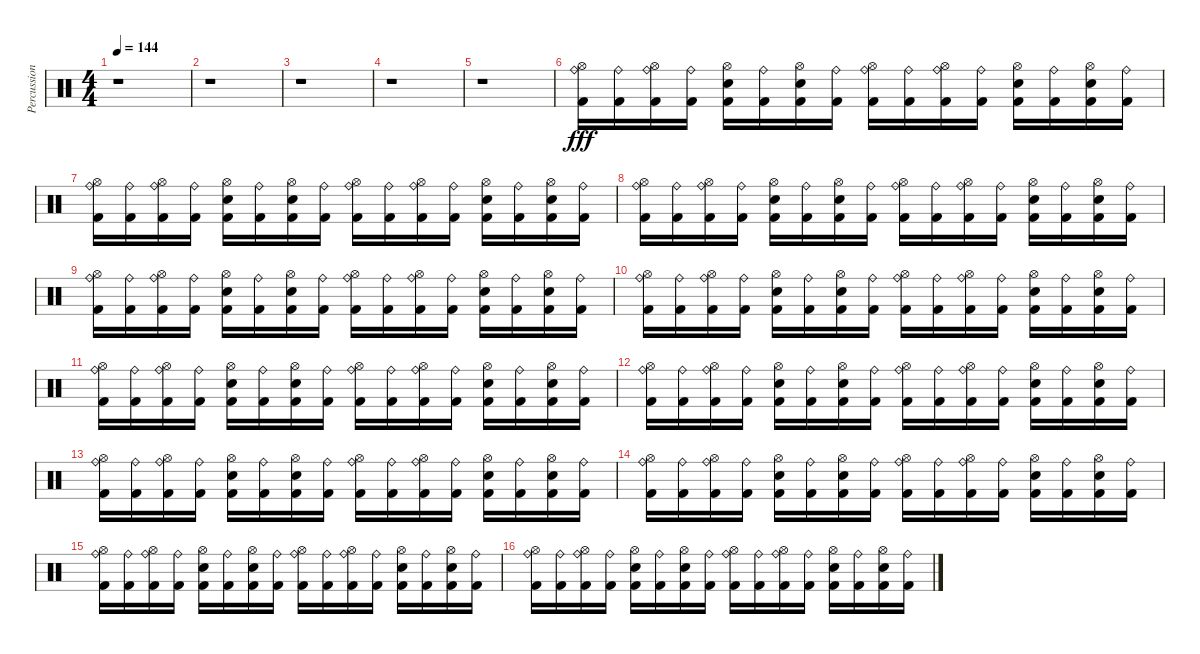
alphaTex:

\track ("Percussion -  Bard Faust" "Percussion") {instrument percussion}
\staff {score}
\articulation defaults
\ts (4 4)
\tempo 144
\clef neutral
\ks c
r.1{dy fff} |
r.1 |
r.1 |
r.1 |
r.1 |
("Hi-Hat (open)" "Ride (bell)" "Kick (hit) 2").16 ("Ride (bell)" "Kick (hit) 2").16 ("Hi-Hat (open)" "Ride (bell)" "Kick (hit) 2").16 ("Ride (bell)" "Kick (hit) 2").16 ("Hi-Hat (open)" "Electric Snare (hit)" "Kick (hit) 2").16 ("Ride (bell)" "Kick (hit) 2").16 ("Hi-Hat (open)" "Electric Snare (hit)" "Kick (hit) 2").16 ("Ride (bell)" "Kick (hit) 2").16 ("Hi-Hat (open)" "Ride (bell)" "Kick (hit) 2").16 ("Ride (bell)" "Kick (hit) 2").16 ("Hi-Hat (open)" "Ride (bell)" "Kick (hit) 2").16 ("Ride (bell)" "Kick (hit) 2").16 ("Hi-Hat (open)" "Electric Snare (hit)" "Kick (hit) 2").16 ("Ride (bell)" "Kick (hit) 2").16 ("Hi-Hat (open)" "Electric Snare (hit)" "Kick (hit) 2").16 ("Ride (bell)" "Kick (hit) 2").16 |
("Hi-Hat (open)" "Ride (bell)" "Kick (hit) 2").16 ("Ride (bell)" "Kick (hit) 2").16 ("Hi-Hat (open)" "Ride (bell)" "Kick (hit) 2").16 ("Ride (bell)" "Kick (hit) 2").16 ("Hi-Hat (open)" "Electric Snare (hit)" "Kick (hit) 2").16 ("Ride (bell)" "Kick (hit) 2").16 ("Hi-Hat (open)" "Electric Snare (hit)" "Kick (hit) 2").16 ("Ride (bell)" "Kick (hit) 2").16 ("Hi-Hat (open)" "Ride (bell)" "Kick (hit) 2").16 ("Ride (bell)" "Kick (hit) 2").16 ("Hi-Hat (open)" "Ride (bell)" "Kick (hit) 2").16 ("Ride (bell)" "Kick (hit) 2").16 ("Hi-Hat (open)" "Electric Snare (hit)" "Kick (hit) 2").16 ("Ride (bell)" "Kick (hit) 2").16 ("Hi-Hat (open)" "Electric Snare (hit)" "Kick (hit) 2").16 ("Ride (bell)" "Kick (hit) 2").16 |
("Hi-Hat (open)" "Ride (bell)" "Kick (hit) 2").16 ("Ride (bell)" "Kick (hit) 2").16 ("Hi-Hat (open)" "Ride (bell)" "Kick (hit) 2").16 ("Ride (bell)" "Kick (hit) 2").16 ("Hi-Hat (open)" "Electric Snare (hit)" "Kick (hit) 2").16 ("Ride (bell)" "Kick (hit) 2").16 ("Hi-Hat (open)" "Electric Snare (hit)" "Kick (hit) 2").16 ("Ride (bell)" "Kick (hit) 2").16 ("Hi-Hat (open)" "Ride (bell)" "Kick (hit) 2").16 ("Ride (bell)" "Kick (hit) 2").16 ("Hi-Hat (open)" "Ride (bell)" "Kick (hit) 2").16 ("Ride (bell)" "Kick (hit) 2").16 ("Hi-Hat (open)" "Electric Snare (hit)" "Kick (hit) 2").16 ("Ride (bell)" "Kick (hit) 2").16 ("Hi-Hat (open)" "Electric Snare (hit)" "Kick (hit) 2").16 ("Ride (bell)" "Kick (hit) 2").16 |
("Hi-Hat (open)" "Ride (bell)" "Kick (hit) 2").16 ("Ride (bell)" "Kick (hit) 2").16 ("Hi-Hat (open)" "Ride (bell)" "Kick (hit) 2").16 ("Ride (bell)" "Kick (hit) 2").16 ("Hi-Hat (open)" "Electric Snare (hit)" "Kick (hit) 2").16 ("Ride (bell)" "Kick (hit) 2").16 ("Hi-Hat (open)" "Electric Snare (hit)" "Kick (hit) 2").16 ("Ride (bell)" "Kick (hit) 2").16 ("Hi-Hat (open)" "Ride (bell)" "Kick (hit) 2").16 ("Ride (bell)" "Kick (hit) 2").16 ("Hi-Hat (open)" "Ride (bell)" "Kick (hit) 2").16 ("Ride (bell)" "Kick (hit) 2").16 ("Hi-Hat (open)" "Electric Snare (hit)" "Kick (hit) 2").16 ("Ride (bell)" "Kick (hit) 2").16 ("Hi-Hat (open)" "Electric Snare (hit)" "Kick (hit) 2").16 ("Ride (bell)" "Kick (hit) 2").16 |
("Hi-Hat (open)" "Ride (bell)" "Kick (hit) 2").16 ("Ride (bell)" "Kick (hit) 2").16 ("Hi-Hat (open)" "Ride (bell)" "Kick (hit) 2").16 ("Ride (bell)" "Kick (hit) 2").16 ("Hi-Hat (open)" "Electric Snare (hit)" "Kick (hit) 2").16 ("Ride (bell)" "Kick (hit) 2").16 ("Hi-Hat (open)" "Electric Snare (hit)" "Kick (hit) 2").16 ("Ride (bell)" "Kick (hit) 2").16 ("Hi-Hat (open)" "Ride (bell)" "Kick (hit) 2").16 ("Ride (bell)" "Kick (hit) 2").16 ("Hi-Hat (open)" "Ride (bell)" "Kick (hit) 2").16 ("Ride (bell)" "Kick (hit) 2").16 ("Hi-Hat (open)" "Electric Snare (hit)" "Kick (hit) 2").16 ("Ride (bell)" "Kick (hit) 2").16 ("Hi-Hat (open)" "Electric Snare (hit)" "Kick (hit) 2").16 ("Ride (bell)" "Kick (hit) 2").16 |
("Hi-Hat (open)" "Ride (bell)" "Kick (hit) 2").16 ("Ride (bell)" "Kick (hit) 2").16 ("Hi-Hat (open)" "Ride (bell)" "Kick (hit) 2").16 ("Ride (bell)" "Kick (hit) 2").16 ("Hi-Hat (open)" "Electric Snare (hit)" "Kick (hit) 2").16 ("Ride (bell)" "Kick (hit) 2").16 ("Hi-Hat (open)" "Electric Snare (hit)" "Kick (hit) 2").16 ("Ride (bell)" "Kick (hit) 2").16 ("Hi-Hat (open)" "Ride (bell)" "Kick (hit) 2").16 ("Ride (bell)" "Kick (hit) 2").16 ("Hi-Hat (open)" "Ride (bell)" "Kick (hit) 2").16 ("Ride (bell)" "Kick (hit) 2").16 ("Hi-Hat (open)" "Electric Snare (hit)" "Kick (hit) 2").16 ("Ride (bell)" "Kick (hit) 2").16 ("Hi-Hat (open)" "Electric Snare (hit)" "Kick (hit) 2").16 ("Ride (bell)" "Kick (hit) 2").16 |
("Hi-Hat (open)" "Ride (bell)" "Kick (hit) 2").16 ("Ride (bell)" "Kick (hit) 2").16 ("Hi-Hat (open)" "Ride (bell)" "Kick (hit) 2").16 ("Ride (bell)" "Kick (hit) 2").16 ("Hi-Hat (open)" "Electric Snare (hit)" "Kick (hit) 2").16 ("Ride (bell)" "Kick (hit) 2").16 ("Hi-Hat (open)" "Electric Snare (hit)" "Kick (hit) 2").16 ("Ride (bell)" "Kick (hit) 2").16 ("Hi-Hat (open)" "Ride (bell)" "Kick (hit) 2").16 ("Ride (bell)" "Kick (hit) 2").16 ("Hi-Hat (open)" "Ride (bell)" "Kick (hit) 2").16 ("Ride (bell)" "Kick (hit) 2").16 ("Hi-Hat (open)" "Electric Snare (hit)" "Kick (hit) 2").16 ("Ride (bell)" "Kick (hit) 2").16 ("Hi-Hat (open)" "Electric Snare (hit)" "Kick (hit) 2").16 ("Ride (bell)" "Kick (hit) 2").16 |
("Hi-Hat (open)" "Ride (bell)" "Kick (hit) 2").16 ("Ride (bell)" "Kick (hit) 2").16 ("Hi-Hat (open)" "Ride (bell)" "Kick (hit) 2").16 ("Ride (bell)" "Kick (hit) 2").16 ("Hi-Hat (open)" "Electric Snare (hit)" "Kick (hit) 2").16 ("Ride (bell)" "Kick (hit) 2").16 ("Hi-Hat (open)" "Electric Snare (hit)" "Kick (hit) 2").16 ("Ride (bell)" "Kick (hit) 2").16 ("Hi-Hat (open)" "Ride (bell)" "Kick (hit) 2").16 ("Ride (bell)" "Kick (hit) 2").16 ("Hi-Hat (open)" "Ride (bell)" "Kick (hit) 2").16 ("Ride (bell)" "Kick (hit) 2").16 ("Hi-Hat (open)" "Electric Snare (hit)" "Kick (hit) 2").16 ("Ride (bell)" "Kick (hit) 2").16 ("Hi-Hat (open)" "Electric Snare (hit)" "Kick (hit) 2").16 ("Ride (bell)" "Kick (hit) 2").16 |
("Hi-Hat (open)" "Ride (bell)" "Kick (hit) 2").16 ("Ride (bell)" "Kick (hit) 2").16 ("Hi-Hat (open)" "Ride (bell)" "Kick (hit) 2").16 ("Ride (bell)" "Kick (hit) 2").16 ("Hi-Hat (open)" "Electric Snare (hit)" "Kick (hit) 2").16 ("Ride (bell)" "Kick (hit) 2").16 ("Hi-Hat (open)" "Electric Snare (hit)" "Kick (hit) 2").16 ("Ride (bell)" "Kick (hit) 2").16 ("Hi-Hat (open)" "Ride (bell)" "Kick (hit) 2").16 ("Ride (bell)" "Kick (hit) 2").16 ("Hi-Hat (open)" "Ride (bell)" "Kick (hit) 2").16 ("Ride (bell)" "Kick (hit) 2").16 ("Hi-Hat (open)" "Electric Snare (hit)" "Kick (hit) 2").16 ("Ride (bell)" "Kick (hit) 2").16 ("Hi-Hat (open)" "Electric Snare (hit)" "Kick (hit) 2").16 ("Ride (bell)" "Kick (hit) 2").16 |
("Hi-Hat (open)" "Ride (bell)" "Kick (hit) 2").16 ("Ride (bell)" "Kick (hit) 2").16 ("Hi-Hat (open)" "Ride (bell)" "Kick (hit) 2").16 ("Ride (bell)" "Kick (hit) 2").16 ("Hi-Hat (open)" "Electric Snare (hit)" "Kick (hit) 2").16 ("Ride (bell)" "Kick (hit) 2").16 ("Hi-Hat (open)" "Electric Snare (hit)" "Kick (hit) 2").16 ("Ride (bell)" "Kick (hit) 2").16 ("Hi-Hat (open)" "Ride (bell)" "Kick (hit) 2").16 ("Ride (bell)" "Kick (hit) 2").16 ("Hi-Hat (open)" "Ride (bell)" "Kick (hit) 2").16 ("Ride (bell)" "Kick (hit) 2").16 ("Hi-Hat (open)" "Electric Snare (hit)" "Kick (hit) 2").16 ("Ride (bell)" "Kick (hit) 2").16 ("Hi-Hat (open)" "Electric Snare (hit)" "Kick (hit) 2").16 ("Ride (bell)" "Kick (hit) 2").16 |
("Hi-Hat (open)" "Ride (bell)" "Kick (hit) 2").16 ("Ride (bell)" "Kick (hit) 2").16 ("Hi-Hat (open)" "Ride (bell)" "Kick (hit) 2").16 ("Ride (bell)" "Kick (hit) 2").16 ("Hi-Hat (open)" "Electric Snare (hit)" "Kick (hit) 2").16 ("Ride (bell)" "Kick (hit) 2").16 ("Hi-Hat (open)" "Electric Snare (hit)" "Kick (hit) 2").16 ("Ride (bell)" "Kick (hit) 2").16 ("Hi-Hat (open)" "Ride (bell)" "Kick (hit) 2").16 ("Ride (bell)" "Kick (hit) 2").16 ("Hi-Hat (open)" "Ride (bell)" "Kick (hit) 2").16 ("Ride (bell)" "Kick (hit) 2").16 ("Hi-Hat (open)" "Electric Snare (hit)" "Kick (hit) 2").16 ("Ride (bell)" "Kick (hit) 2").16 ("Hi-Hat (open)" "Electric Snare (hit)" "Kick (hit) 2").16 ("Ride (bell)" "Kick (hit) 2").16
